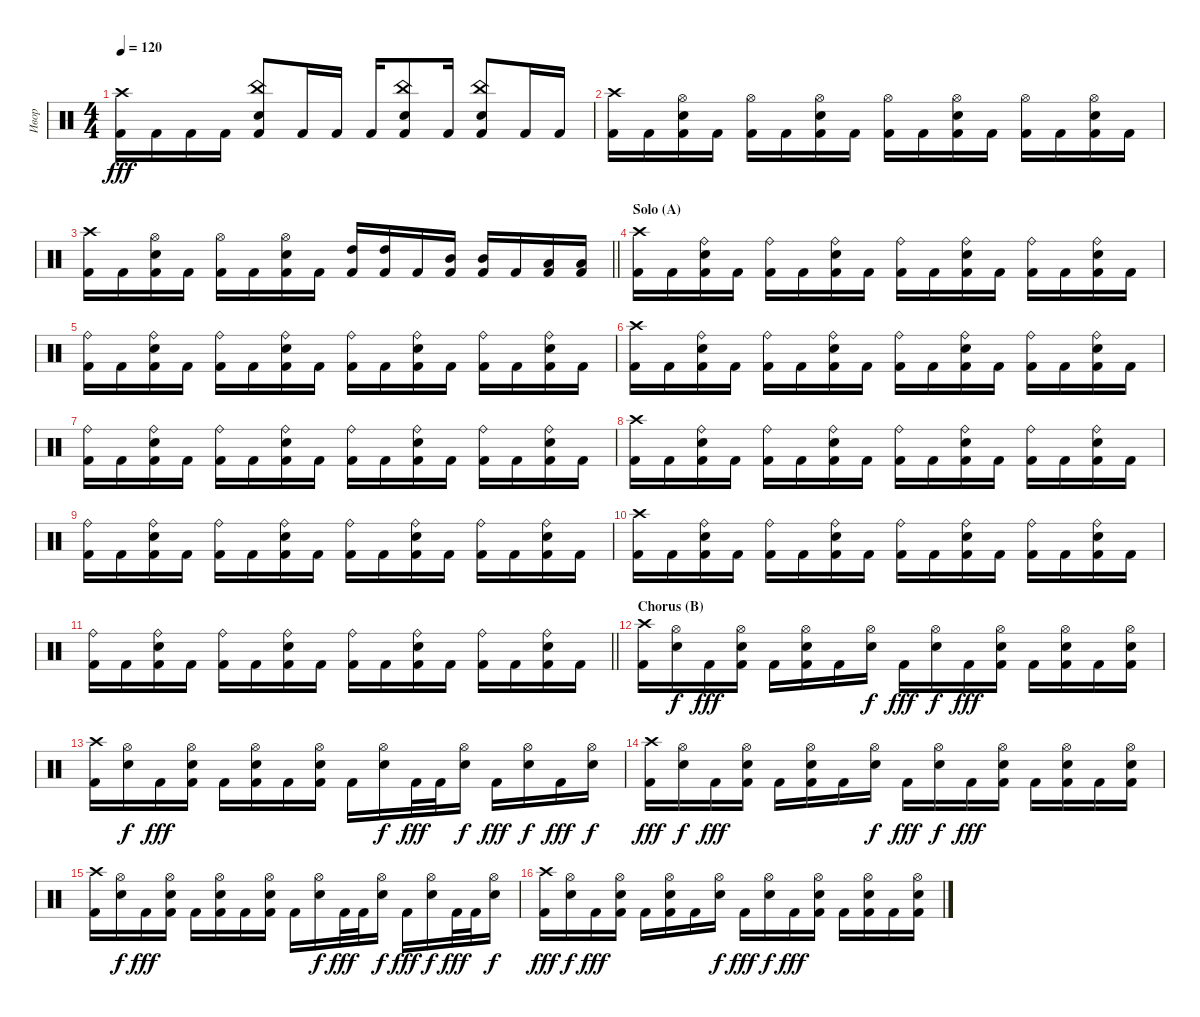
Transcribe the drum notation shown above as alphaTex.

\track ("Ивор" "Ивор") {instrument percussion}
\staff {score}
\articulation defaults
\ts (4 4)
\tempo 120
\clef neutral
\ks c
("Crash high (hit)" "Kick (hit) 2").16{dy fff} "Kick (hit) 2".16 "Kick (hit) 2".16 "Kick (hit) 2".16 ("China (hit)" "Electric Snare (hit)" "Kick (hit) 2").8 "Kick (hit) 2".16 "Kick (hit) 2".16 "Kick (hit) 2".16 ("China (hit)" "Electric Snare (hit)" "Kick (hit) 2").8 "Kick (hit) 2".16 ("China (hit)" "Electric Snare (hit)" "Kick (hit) 2").8 "Kick (hit) 2".16 "Kick (hit) 2".16 |
("Crash high (hit)" "Kick (hit) 2").16 "Kick (hit) 2".16 ("Hi-Hat (open)" "Electric Snare (hit)" "Kick (hit) 2").16 "Kick (hit) 2".16 ("Hi-Hat (open)" "Kick (hit) 2").16 "Kick (hit) 2".16 ("Hi-Hat (open)" "Electric Snare (hit)" "Kick (hit) 2").16 "Kick (hit) 2".16 ("Hi-Hat (open)" "Kick (hit) 2").16 "Kick (hit) 2".16 ("Hi-Hat (open)" "Electric Snare (hit)" "Kick (hit) 2").16 "Kick (hit) 2".16 ("Hi-Hat (open)" "Kick (hit) 2").16 "Kick (hit) 2".16 ("Hi-Hat (open)" "Electric Snare (hit)" "Kick (hit) 2").16 "Kick (hit) 2".16 |
\barLineRight lightlight
("Crash high (hit)" "Kick (hit) 2").16 "Kick (hit) 2".16 ("Hi-Hat (open)" "Electric Snare (hit)" "Kick (hit) 2").16 "Kick (hit) 2".16 ("Hi-Hat (open)" "Kick (hit) 2").16 "Kick (hit) 2".16 ("Hi-Hat (open)" "Electric Snare (hit)" "Kick (hit) 2").16 "Kick (hit) 2".16 ("High Tom (hit)" "Kick (hit) 2").16 ("High Tom (hit)" "Kick (hit) 2").16 "Kick (hit) 2".16 ("Mid Tom (hit)" "Kick (hit) 2").16 ("Mid Tom (hit)" "Kick (hit) 2").16 "Kick (hit) 2".16 ("Low Tom (hit)" "Kick (hit) 2").16 ("Low Tom (hit)" "Kick (hit) 2").16 |
\section ("" "Solo (A)")
("Crash high (hit)" "Kick (hit) 2").16 "Kick (hit) 2".16 ("Ride (bell)" "Electric Snare (hit)" "Kick (hit) 2").16 "Kick (hit) 2".16 ("Ride (bell)" "Kick (hit) 2").16 "Kick (hit) 2".16 ("Ride (bell)" "Electric Snare (hit)" "Kick (hit) 2").16 "Kick (hit) 2".16 ("Ride (bell)" "Kick (hit) 2").16 "Kick (hit) 2".16 ("Ride (bell)" "Electric Snare (hit)" "Kick (hit) 2").16 "Kick (hit) 2".16 ("Ride (bell)" "Kick (hit) 2").16 "Kick (hit) 2".16 ("Ride (bell)" "Electric Snare (hit)" "Kick (hit) 2").16 "Kick (hit) 2".16 |
("Ride (bell)" "Kick (hit) 2").16 "Kick (hit) 2".16 ("Ride (bell)" "Electric Snare (hit)" "Kick (hit) 2").16 "Kick (hit) 2".16 ("Ride (bell)" "Kick (hit) 2").16 "Kick (hit) 2".16 ("Ride (bell)" "Electric Snare (hit)" "Kick (hit) 2").16 "Kick (hit) 2".16 ("Ride (bell)" "Kick (hit) 2").16 "Kick (hit) 2".16 ("Ride (bell)" "Electric Snare (hit)" "Kick (hit) 2").16 "Kick (hit) 2".16 ("Ride (bell)" "Kick (hit) 2").16 "Kick (hit) 2".16 ("Ride (bell)" "Electric Snare (hit)" "Kick (hit) 2").16 "Kick (hit) 2".16 |
("Crash high (hit)" "Kick (hit) 2").16 "Kick (hit) 2".16 ("Ride (bell)" "Electric Snare (hit)" "Kick (hit) 2").16 "Kick (hit) 2".16 ("Ride (bell)" "Kick (hit) 2").16 "Kick (hit) 2".16 ("Ride (bell)" "Electric Snare (hit)" "Kick (hit) 2").16 "Kick (hit) 2".16 ("Ride (bell)" "Kick (hit) 2").16 "Kick (hit) 2".16 ("Ride (bell)" "Electric Snare (hit)" "Kick (hit) 2").16 "Kick (hit) 2".16 ("Ride (bell)" "Kick (hit) 2").16 "Kick (hit) 2".16 ("Ride (bell)" "Electric Snare (hit)" "Kick (hit) 2").16 "Kick (hit) 2".16 |
("Ride (bell)" "Kick (hit) 2").16 "Kick (hit) 2".16 ("Ride (bell)" "Electric Snare (hit)" "Kick (hit) 2").16 "Kick (hit) 2".16 ("Ride (bell)" "Kick (hit) 2").16 "Kick (hit) 2".16 ("Ride (bell)" "Electric Snare (hit)" "Kick (hit) 2").16 "Kick (hit) 2".16 ("Ride (bell)" "Kick (hit) 2").16 "Kick (hit) 2".16 ("Ride (bell)" "Electric Snare (hit)" "Kick (hit) 2").16 "Kick (hit) 2".16 ("Ride (bell)" "Kick (hit) 2").16 "Kick (hit) 2".16 ("Ride (bell)" "Electric Snare (hit)" "Kick (hit) 2").16 "Kick (hit) 2".16 |
("Crash high (hit)" "Kick (hit) 2").16 "Kick (hit) 2".16 ("Ride (bell)" "Electric Snare (hit)" "Kick (hit) 2").16 "Kick (hit) 2".16 ("Ride (bell)" "Kick (hit) 2").16 "Kick (hit) 2".16 ("Ride (bell)" "Electric Snare (hit)" "Kick (hit) 2").16 "Kick (hit) 2".16 ("Ride (bell)" "Kick (hit) 2").16 "Kick (hit) 2".16 ("Ride (bell)" "Electric Snare (hit)" "Kick (hit) 2").16 "Kick (hit) 2".16 ("Ride (bell)" "Kick (hit) 2").16 "Kick (hit) 2".16 ("Ride (bell)" "Electric Snare (hit)" "Kick (hit) 2").16 "Kick (hit) 2".16 |
("Ride (bell)" "Kick (hit) 2").16 "Kick (hit) 2".16 ("Ride (bell)" "Electric Snare (hit)" "Kick (hit) 2").16 "Kick (hit) 2".16 ("Ride (bell)" "Kick (hit) 2").16 "Kick (hit) 2".16 ("Ride (bell)" "Electric Snare (hit)" "Kick (hit) 2").16 "Kick (hit) 2".16 ("Ride (bell)" "Kick (hit) 2").16 "Kick (hit) 2".16 ("Ride (bell)" "Electric Snare (hit)" "Kick (hit) 2").16 "Kick (hit) 2".16 ("Ride (bell)" "Kick (hit) 2").16 "Kick (hit) 2".16 ("Ride (bell)" "Electric Snare (hit)" "Kick (hit) 2").16 "Kick (hit) 2".16 |
("Crash high (hit)" "Kick (hit) 2").16 "Kick (hit) 2".16 ("Ride (bell)" "Electric Snare (hit)" "Kick (hit) 2").16 "Kick (hit) 2".16 ("Ride (bell)" "Kick (hit) 2").16 "Kick (hit) 2".16 ("Ride (bell)" "Electric Snare (hit)" "Kick (hit) 2").16 "Kick (hit) 2".16 ("Ride (bell)" "Kick (hit) 2").16 "Kick (hit) 2".16 ("Ride (bell)" "Electric Snare (hit)" "Kick (hit) 2").16 "Kick (hit) 2".16 ("Ride (bell)" "Kick (hit) 2").16 "Kick (hit) 2".16 ("Ride (bell)" "Electric Snare (hit)" "Kick (hit) 2").16 "Kick (hit) 2".16 |
\barLineRight lightlight
("Ride (bell)" "Kick (hit) 2").16 "Kick (hit) 2".16 ("Ride (bell)" "Electric Snare (hit)" "Kick (hit) 2").16 "Kick (hit) 2".16 ("Ride (bell)" "Kick (hit) 2").16 "Kick (hit) 2".16 ("Ride (bell)" "Electric Snare (hit)" "Kick (hit) 2").16 "Kick (hit) 2".16 ("Ride (bell)" "Kick (hit) 2").16 "Kick (hit) 2".16 ("Ride (bell)" "Electric Snare (hit)" "Kick (hit) 2").16 "Kick (hit) 2".16 ("Ride (bell)" "Kick (hit) 2").16 "Kick (hit) 2".16 ("Ride (bell)" "Electric Snare (hit)" "Kick (hit) 2").16 "Kick (hit) 2".16 |
\section ("" "Chorus (B)")
("Crash high (hit)" "Kick (hit) 2").16 ("Hi-Hat (open)" "Electric Snare (hit)").16{dy f} "Kick (hit) 2".16{dy fff} ("Hi-Hat (open)" "Electric Snare (hit)" "Kick (hit) 2").16 "Kick (hit) 2".16 ("Hi-Hat (open)" "Electric Snare (hit)" "Kick (hit) 2").16 "Kick (hit) 2".16 ("Hi-Hat (open)" "Electric Snare (hit)").16{dy f} "Kick (hit) 2".16{dy fff} ("Hi-Hat (open)" "Electric Snare (hit)").16{dy f} "Kick (hit) 2".16{dy fff} ("Hi-Hat (open)" "Electric Snare (hit)" "Kick (hit) 2").16 "Kick (hit) 2".16 ("Hi-Hat (open)" "Electric Snare (hit)" "Kick (hit) 2").16 "Kick (hit) 2".16 ("Hi-Hat (open)" "Electric Snare (hit)" "Kick (hit) 2").16 |
("Crash high (hit)" "Kick (hit) 2").16 ("Hi-Hat (open)" "Electric Snare (hit)").16{dy f} "Kick (hit) 2".16{dy fff} ("Hi-Hat (open)" "Electric Snare (hit)" "Kick (hit) 2").16 "Kick (hit) 2".16 ("Hi-Hat (open)" "Electric Snare (hit)" "Kick (hit) 2").16 "Kick (hit) 2".16 ("Hi-Hat (open)" "Electric Snare (hit)" "Kick (hit) 2").16 "Kick (hit) 2".16 ("Hi-Hat (open)" "Electric Snare (hit)").16{dy f} "Kick (hit) 2".32{dy fff} "Kick (hit) 2".32 ("Hi-Hat (open)" "Electric Snare (hit)").16{dy f} "Kick (hit) 2".16{dy fff} ("Hi-Hat (open)" "Electric Snare (hit)").16{dy f} "Kick (hit) 2".16{dy fff} ("Hi-Hat (open)" "Electric Snare (hit)").16{dy f} |
("Crash high (hit)" "Kick (hit) 2").16{dy fff} ("Hi-Hat (open)" "Electric Snare (hit)").16{dy f} "Kick (hit) 2".16{dy fff} ("Hi-Hat (open)" "Electric Snare (hit)" "Kick (hit) 2").16 "Kick (hit) 2".16 ("Hi-Hat (open)" "Electric Snare (hit)" "Kick (hit) 2").16 "Kick (hit) 2".16 ("Hi-Hat (open)" "Electric Snare (hit)").16{dy f} "Kick (hit) 2".16{dy fff} ("Hi-Hat (open)" "Electric Snare (hit)").16{dy f} "Kick (hit) 2".16{dy fff} ("Hi-Hat (open)" "Electric Snare (hit)" "Kick (hit) 2").16 "Kick (hit) 2".16 ("Hi-Hat (open)" "Electric Snare (hit)" "Kick (hit) 2").16 "Kick (hit) 2".16 ("Hi-Hat (open)" "Electric Snare (hit)" "Kick (hit) 2").16 |
("Crash high (hit)" "Kick (hit) 2").16 ("Hi-Hat (open)" "Electric Snare (hit)").16{dy f} "Kick (hit) 2".16{dy fff} ("Hi-Hat (open)" "Electric Snare (hit)" "Kick (hit) 2").16 "Kick (hit) 2".16 ("Hi-Hat (open)" "Electric Snare (hit)" "Kick (hit) 2").16 "Kick (hit) 2".16 ("Hi-Hat (open)" "Electric Snare (hit)" "Kick (hit) 2").16 "Kick (hit) 2".16 ("Hi-Hat (open)" "Electric Snare (hit)").16{dy f} "Kick (hit) 2".32{dy fff} "Kick (hit) 2".32 ("Hi-Hat (open)" "Electric Snare (hit)").16{dy f} "Kick (hit) 2".16{dy fff} ("Hi-Hat (open)" "Electric Snare (hit)").16{dy f} "Kick (hit) 2".32{dy fff} "Kick (hit) 2".32 ("Hi-Hat (open)" "Electric Snare (hit)").16{dy f} |
("Crash high (hit)" "Kick (hit) 2").16{dy fff} ("Hi-Hat (open)" "Electric Snare (hit)").16{dy f} "Kick (hit) 2".16{dy fff} ("Hi-Hat (open)" "Electric Snare (hit)" "Kick (hit) 2").16 "Kick (hit) 2".16 ("Hi-Hat (open)" "Electric Snare (hit)" "Kick (hit) 2").16 "Kick (hit) 2".16 ("Hi-Hat (open)" "Electric Snare (hit)").16{dy f} "Kick (hit) 2".16{dy fff} ("Hi-Hat (open)" "Electric Snare (hit)").16{dy f} "Kick (hit) 2".16{dy fff} ("Hi-Hat (open)" "Electric Snare (hit)" "Kick (hit) 2").16 "Kick (hit) 2".16 ("Hi-Hat (open)" "Electric Snare (hit)" "Kick (hit) 2").16 "Kick (hit) 2".16 ("Hi-Hat (open)" "Electric Snare (hit)" "Kick (hit) 2").16
